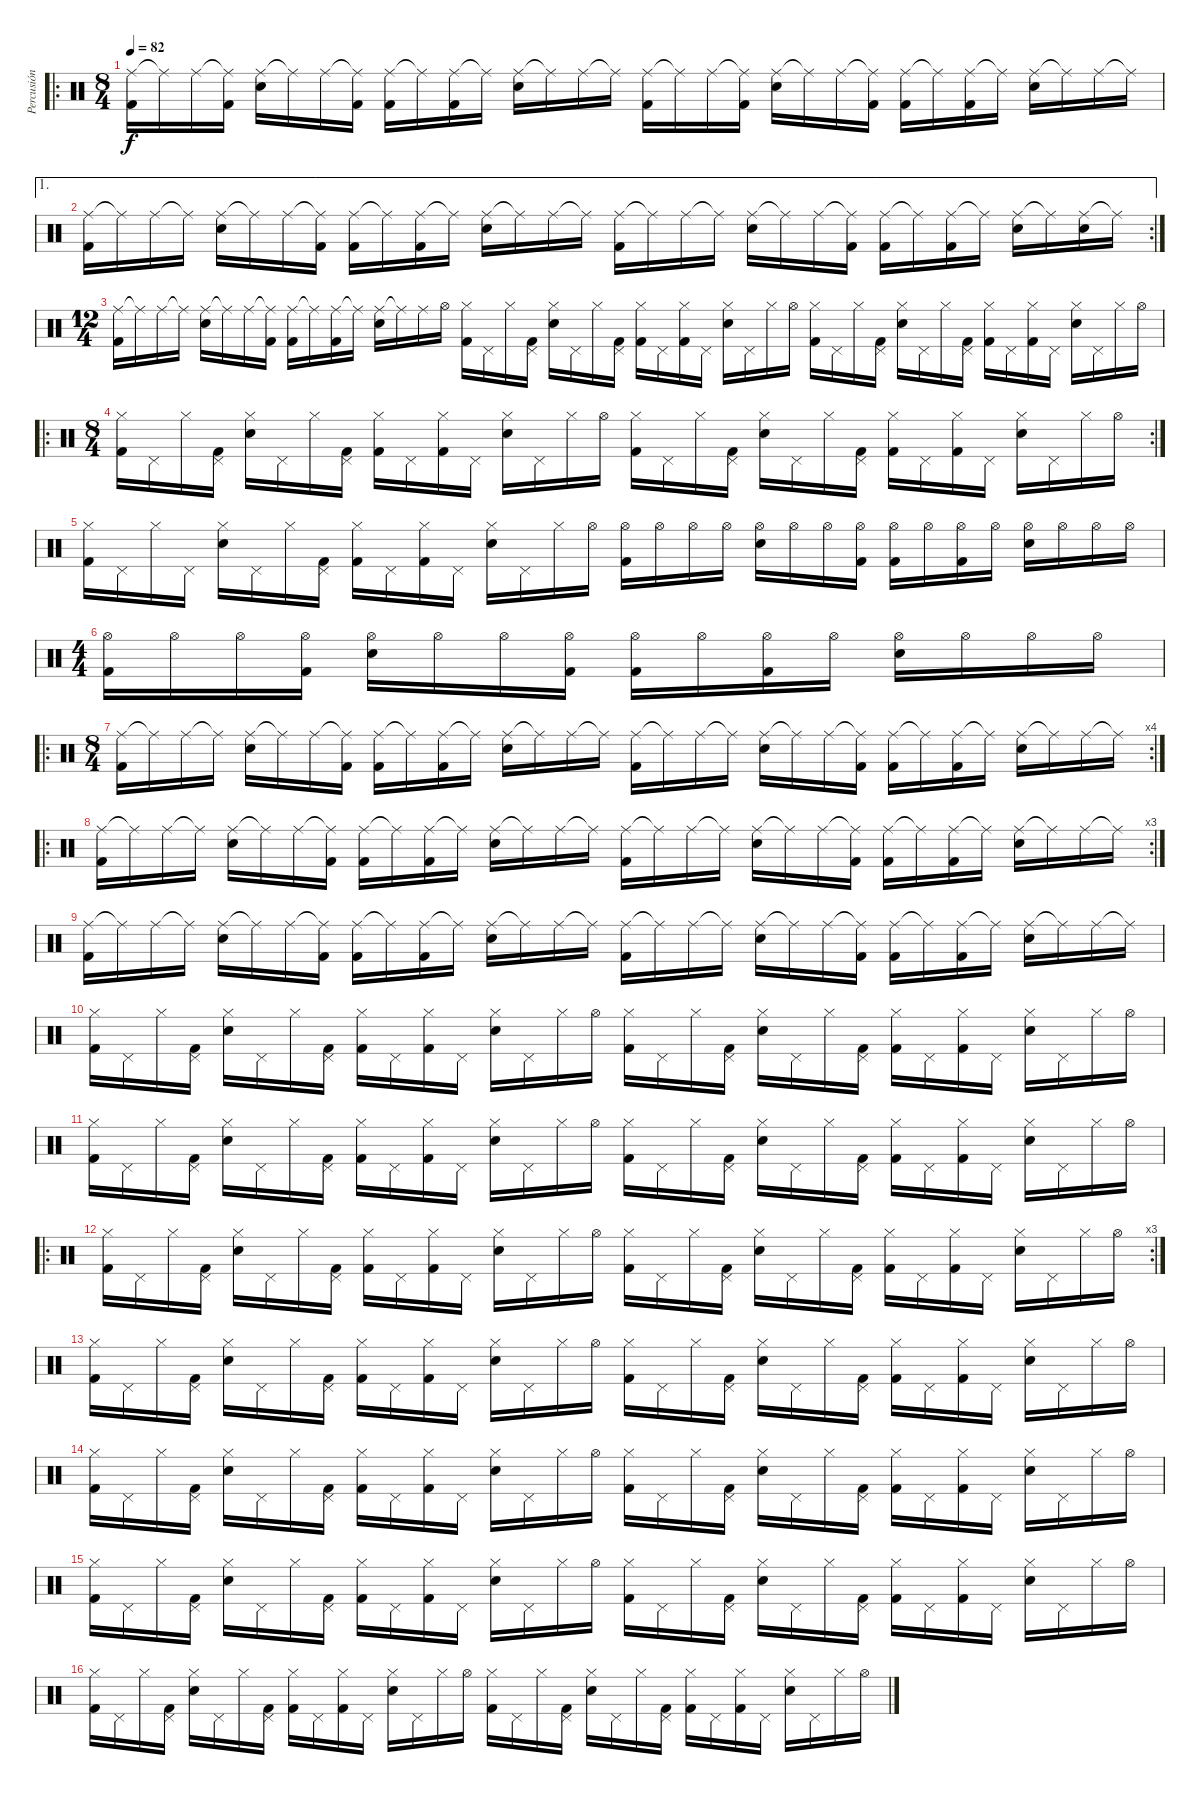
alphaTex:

\track ("Percusión" "Percusión") {instrument percussion}
\staff {score}
\articulation defaults
\ro
\ts (8 4)
\tempo 82
\clef neutral
\ks c
("Ride (middle)" "Kick (hit) 2").16{dy f volume 7} "Ride (middle)"{t}.16 "Ride (middle)".16 ("Ride (middle)"{t} "Kick (hit) 2").16 ("Ride (middle)" "Electric Snare (hit)").16 "Ride (middle)"{t}.16 "Ride (middle)".16 ("Ride (middle)"{t} "Kick (hit) 2").16 ("Ride (middle)" "Kick (hit) 2").16 "Ride (middle)"{t}.16 ("Ride (middle)" "Kick (hit) 2").16 "Ride (middle)"{t}.16 ("Ride (middle)" "Electric Snare (hit)").16 "Ride (middle)"{t}.16 "Ride (middle)".16 "Ride (middle)"{t}.16 ("Ride (middle)" "Kick (hit) 2").16 "Ride (middle)"{t}.16 "Ride (middle)".16 ("Ride (middle)"{t} "Kick (hit) 2").16 ("Ride (middle)" "Electric Snare (hit)").16 "Ride (middle)"{t}.16 "Ride (middle)".16 ("Ride (middle)"{t} "Kick (hit) 2").16 ("Ride (middle)" "Kick (hit) 2").16 "Ride (middle)"{t}.16 ("Ride (middle)" "Kick (hit) 2").16 "Ride (middle)"{t}.16 ("Ride (middle)" "Electric Snare (hit)").16 "Ride (middle)"{t}.16 "Ride (middle)".16 "Ride (middle)"{t}.16 |
\ae 1
\rc 2
("Ride (middle)" "Kick (hit) 2").16 "Ride (middle)"{t}.16 "Ride (middle)".16 "Ride (middle)"{t}.16 ("Ride (middle)" "Electric Snare (hit)").16 "Ride (middle)"{t}.16 "Ride (middle)".16 ("Ride (middle)"{t} "Kick (hit) 2").16 ("Ride (middle)" "Kick (hit) 2").16 "Ride (middle)"{t}.16 ("Ride (middle)" "Kick (hit) 2").16 "Ride (middle)"{t}.16 ("Ride (middle)" "Electric Snare (hit)").16 "Ride (middle)"{t}.16 "Ride (middle)".16 "Ride (middle)"{t}.16 ("Ride (middle)" "Kick (hit) 2").16 "Ride (middle)"{t}.16 "Ride (middle)".16 "Ride (middle)"{t}.16 ("Ride (middle)" "Electric Snare (hit)").16 "Ride (middle)"{t}.16 "Ride (middle)".16 ("Ride (middle)"{t} "Kick (hit) 2").16 ("Ride (middle)" "Kick (hit) 2").16 "Ride (middle)"{t}.16 ("Ride (middle)" "Kick (hit) 2").16 "Ride (middle)"{t}.16 ("Ride (middle)" "Electric Snare (hit)").16 "Ride (middle)"{t}.16 ("Ride (middle)" "Electric Snare (hit)").16 "Ride (middle)"{t}.16 |
\ts (12 4)
("Ride (middle)" "Kick (hit) 2").16 "Ride (middle)"{t}.16 "Ride (middle)".16 "Ride (middle)"{t}.16 ("Ride (middle)" "Electric Snare (hit)").16 "Ride (middle)"{t}.16 "Ride (middle)".16 ("Ride (middle)"{t} "Kick (hit) 2").16 ("Ride (middle)" "Kick (hit) 2").16 "Ride (middle)"{t}.16 ("Ride (middle)" "Kick (hit) 2").16 "Ride (middle)"{t}.16 ("Ride (middle)" "Electric Snare (hit)").16 "Ride (middle)"{t}.16 "Ride (middle)".16 "Hi-Hat (open)".16 ("Hi-Hat (closed)" "Kick (hit) 2").16 "Pedal Hi-Hat (hit)".16 "Hi-Hat (closed)".16 ("Pedal Hi-Hat (hit)" "Kick (hit) 2").16 ("Hi-Hat (closed)" "Electric Snare (hit)").16 "Pedal Hi-Hat (hit)".16 "Hi-Hat (closed)".16 ("Pedal Hi-Hat (hit)" "Kick (hit) 2").16 ("Hi-Hat (closed)" "Kick (hit) 2").16 "Pedal Hi-Hat (hit)".16 ("Hi-Hat (closed)" "Kick (hit) 2").16 "Pedal Hi-Hat (hit)".16 ("Hi-Hat (closed)" "Electric Snare (hit)").16 "Pedal Hi-Hat (hit)".16 "Hi-Hat (closed)".16 "Hi-Hat (open)".16 ("Hi-Hat (closed)" "Kick (hit) 2").16 "Pedal Hi-Hat (hit)".16 "Hi-Hat (closed)".16 ("Pedal Hi-Hat (hit)" "Kick (hit) 2").16 ("Hi-Hat (closed)" "Electric Snare (hit)").16 "Pedal Hi-Hat (hit)".16 "Hi-Hat (closed)".16 ("Pedal Hi-Hat (hit)" "Kick (hit) 2").16 ("Hi-Hat (closed)" "Kick (hit) 2").16 "Pedal Hi-Hat (hit)".16 ("Hi-Hat (closed)" "Kick (hit) 2").16 "Pedal Hi-Hat (hit)".16 ("Hi-Hat (closed)" "Electric Snare (hit)").16 "Pedal Hi-Hat (hit)".16 "Hi-Hat (closed)".16 "Hi-Hat (open)".16 |
\ro
\rc 2
\ts (8 4)
("Hi-Hat (closed)" "Kick (hit) 2").16 "Pedal Hi-Hat (hit)".16 "Hi-Hat (closed)".16 ("Pedal Hi-Hat (hit)" "Kick (hit) 2").16 ("Hi-Hat (closed)" "Electric Snare (hit)").16 "Pedal Hi-Hat (hit)".16 "Hi-Hat (closed)".16 ("Pedal Hi-Hat (hit)" "Kick (hit) 2").16 ("Hi-Hat (closed)" "Kick (hit) 2").16 "Pedal Hi-Hat (hit)".16 ("Hi-Hat (closed)" "Kick (hit) 2").16 "Pedal Hi-Hat (hit)".16 ("Hi-Hat (closed)" "Electric Snare (hit)").16 "Pedal Hi-Hat (hit)".16 "Hi-Hat (closed)".16 "Hi-Hat (open)".16 ("Hi-Hat (closed)" "Kick (hit) 2").16 "Pedal Hi-Hat (hit)".16 "Hi-Hat (closed)".16 ("Pedal Hi-Hat (hit)" "Kick (hit) 2").16 ("Hi-Hat (closed)" "Electric Snare (hit)").16 "Pedal Hi-Hat (hit)".16 "Hi-Hat (closed)".16 ("Pedal Hi-Hat (hit)" "Kick (hit) 2").16 ("Hi-Hat (closed)" "Kick (hit) 2").16 "Pedal Hi-Hat (hit)".16 ("Hi-Hat (closed)" "Kick (hit) 2").16 "Pedal Hi-Hat (hit)".16 ("Hi-Hat (closed)" "Electric Snare (hit)").16 "Pedal Hi-Hat (hit)".16 "Hi-Hat (closed)".16 "Hi-Hat (open)".16 |
("Hi-Hat (closed)" "Kick (hit) 2").16 "Pedal Hi-Hat (hit)".16 "Hi-Hat (closed)".16 "Pedal Hi-Hat (hit)".16 ("Hi-Hat (closed)" "Electric Snare (hit)").16 "Pedal Hi-Hat (hit)".16 "Hi-Hat (closed)".16 ("Pedal Hi-Hat (hit)" "Kick (hit) 2").16 ("Hi-Hat (closed)" "Kick (hit) 2").16 "Pedal Hi-Hat (hit)".16 ("Hi-Hat (closed)" "Kick (hit) 2").16 "Pedal Hi-Hat (hit)".16 ("Hi-Hat (closed)" "Electric Snare (hit)").16 "Pedal Hi-Hat (hit)".16 "Hi-Hat (closed)".16 "Hi-Hat (open)".16 ("Hi-Hat (open)" "Kick (hit) 2").16 "Hi-Hat (open)".16 "Hi-Hat (open)".16 "Hi-Hat (open)".16 ("Hi-Hat (open)" "Electric Snare (hit)").16 "Hi-Hat (open)".16 "Hi-Hat (open)".16 ("Hi-Hat (open)" "Kick (hit) 2").16 ("Hi-Hat (open)" "Kick (hit) 2").16 "Hi-Hat (open)".16 ("Hi-Hat (open)" "Kick (hit) 2").16 "Hi-Hat (open)".16 ("Hi-Hat (open)" "Electric Snare (hit)").16 "Hi-Hat (open)".16 "Hi-Hat (open)".16 "Hi-Hat (open)".16 |
\ts (4 4)
("Hi-Hat (open)" "Kick (hit) 2").16 "Hi-Hat (open)".16 "Hi-Hat (open)".16 ("Hi-Hat (open)" "Kick (hit) 2").16 ("Hi-Hat (open)" "Electric Snare (hit)").16 "Hi-Hat (open)".16 "Hi-Hat (open)".16 ("Hi-Hat (open)" "Kick (hit) 2").16 ("Hi-Hat (open)" "Kick (hit) 2").16 "Hi-Hat (open)".16 ("Hi-Hat (open)" "Kick (hit) 2").16 "Hi-Hat (open)".16 ("Hi-Hat (open)" "Electric Snare (hit)").16 "Hi-Hat (open)".16 "Hi-Hat (open)".16 "Hi-Hat (open)".16 |
\ro
\rc 4
\ts (8 4)
("Ride (middle)" "Kick (hit) 2").16 "Ride (middle)"{t}.16 "Ride (middle)".16 "Ride (middle)"{t}.16 ("Ride (middle)" "Electric Snare (hit)").16 "Ride (middle)"{t}.16 "Ride (middle)".16 ("Ride (middle)"{t} "Kick (hit) 2").16 ("Ride (middle)" "Kick (hit) 2").16 "Ride (middle)"{t}.16 ("Ride (middle)" "Kick (hit) 2").16 "Ride (middle)"{t}.16 ("Ride (middle)" "Electric Snare (hit)").16 "Ride (middle)"{t}.16 "Ride (middle)".16 "Ride (middle)"{t}.16 ("Ride (middle)" "Kick (hit) 2").16 "Ride (middle)"{t}.16 "Ride (middle)".16 "Ride (middle)"{t}.16 ("Ride (middle)" "Electric Snare (hit)").16 "Ride (middle)"{t}.16 "Ride (middle)".16 ("Ride (middle)"{t} "Kick (hit) 2").16 ("Ride (middle)" "Kick (hit) 2").16 "Ride (middle)"{t}.16 ("Ride (middle)" "Kick (hit) 2").16 "Ride (middle)"{t}.16 ("Ride (middle)" "Electric Snare (hit)").16 "Ride (middle)"{t}.16 "Ride (middle)".16 "Ride (middle)"{t}.16 |
\ro
\rc 3
("Ride (middle)" "Kick (hit) 2").16 "Ride (middle)"{t}.16 "Ride (middle)".16 "Ride (middle)"{t}.16 ("Ride (middle)" "Electric Snare (hit)").16 "Ride (middle)"{t}.16 "Ride (middle)".16 ("Ride (middle)"{t} "Kick (hit) 2").16 ("Ride (middle)" "Kick (hit) 2").16 "Ride (middle)"{t}.16 ("Ride (middle)" "Kick (hit) 2").16 "Ride (middle)"{t}.16 ("Ride (middle)" "Electric Snare (hit)").16 "Ride (middle)"{t}.16 "Ride (middle)".16 "Ride (middle)"{t}.16 ("Ride (middle)" "Kick (hit) 2").16 "Ride (middle)"{t}.16 "Ride (middle)".16 "Ride (middle)"{t}.16 ("Ride (middle)" "Electric Snare (hit)").16 "Ride (middle)"{t}.16 "Ride (middle)".16 ("Ride (middle)"{t} "Kick (hit) 2").16 ("Ride (middle)" "Kick (hit) 2").16 "Ride (middle)"{t}.16 ("Ride (middle)" "Kick (hit) 2").16 "Ride (middle)"{t}.16 ("Ride (middle)" "Electric Snare (hit)").16 "Ride (middle)"{t}.16 "Ride (middle)".16 "Ride (middle)"{t}.16 |
("Ride (middle)" "Kick (hit) 2").16 "Ride (middle)"{t}.16 "Ride (middle)".16 "Ride (middle)"{t}.16 ("Ride (middle)" "Electric Snare (hit)").16 "Ride (middle)"{t}.16 "Ride (middle)".16 ("Ride (middle)"{t} "Kick (hit) 2").16 ("Ride (middle)" "Kick (hit) 2").16 "Ride (middle)"{t}.16 ("Ride (middle)" "Kick (hit) 2").16 "Ride (middle)"{t}.16 ("Ride (middle)" "Electric Snare (hit)").16 "Ride (middle)"{t}.16 "Ride (middle)".16 "Ride (middle)"{t}.16 ("Ride (middle)" "Kick (hit) 2").16 "Ride (middle)"{t}.16 "Ride (middle)".16 "Ride (middle)"{t}.16 ("Ride (middle)" "Electric Snare (hit)").16 "Ride (middle)"{t}.16 "Ride (middle)".16 ("Ride (middle)"{t} "Kick (hit) 2").16 ("Ride (middle)" "Kick (hit) 2").16 "Ride (middle)"{t}.16 ("Ride (middle)" "Kick (hit) 2").16 "Ride (middle)"{t}.16 ("Ride (middle)" "Electric Snare (hit)").16 "Ride (middle)"{t}.16 "Ride (middle)".16 "Ride (middle)"{t}.16 |
("Hi-Hat (closed)" "Kick (hit) 2").16 "Pedal Hi-Hat (hit)".16 "Hi-Hat (closed)".16 ("Pedal Hi-Hat (hit)" "Kick (hit) 2").16 ("Hi-Hat (closed)" "Electric Snare (hit)").16 "Pedal Hi-Hat (hit)".16 "Hi-Hat (closed)".16 ("Pedal Hi-Hat (hit)" "Kick (hit) 2").16 ("Hi-Hat (closed)" "Kick (hit) 2").16 "Pedal Hi-Hat (hit)".16 ("Hi-Hat (closed)" "Kick (hit) 2").16 "Pedal Hi-Hat (hit)".16 ("Hi-Hat (closed)" "Electric Snare (hit)").16 "Pedal Hi-Hat (hit)".16 "Hi-Hat (closed)".16 "Hi-Hat (open)".16 ("Hi-Hat (closed)" "Kick (hit) 2").16 "Pedal Hi-Hat (hit)".16 "Hi-Hat (closed)".16 ("Pedal Hi-Hat (hit)" "Kick (hit) 2").16 ("Hi-Hat (closed)" "Electric Snare (hit)").16 "Pedal Hi-Hat (hit)".16 "Hi-Hat (closed)".16 ("Pedal Hi-Hat (hit)" "Kick (hit) 2").16 ("Hi-Hat (closed)" "Kick (hit) 2").16 "Pedal Hi-Hat (hit)".16 ("Hi-Hat (closed)" "Kick (hit) 2").16 "Pedal Hi-Hat (hit)".16 ("Hi-Hat (closed)" "Electric Snare (hit)").16 "Pedal Hi-Hat (hit)".16 "Hi-Hat (closed)".16 "Hi-Hat (open)".16 |
("Hi-Hat (closed)" "Kick (hit) 2").16 "Pedal Hi-Hat (hit)".16 "Hi-Hat (closed)".16 ("Pedal Hi-Hat (hit)" "Kick (hit) 2").16 ("Hi-Hat (closed)" "Electric Snare (hit)").16 "Pedal Hi-Hat (hit)".16 "Hi-Hat (closed)".16 ("Pedal Hi-Hat (hit)" "Kick (hit) 2").16 ("Hi-Hat (closed)" "Kick (hit) 2").16 "Pedal Hi-Hat (hit)".16 ("Hi-Hat (closed)" "Kick (hit) 2").16 "Pedal Hi-Hat (hit)".16 ("Hi-Hat (closed)" "Electric Snare (hit)").16 "Pedal Hi-Hat (hit)".16 "Hi-Hat (closed)".16 "Hi-Hat (open)".16 ("Hi-Hat (closed)" "Kick (hit) 2").16 "Pedal Hi-Hat (hit)".16 "Hi-Hat (closed)".16 ("Pedal Hi-Hat (hit)" "Kick (hit) 2").16 ("Hi-Hat (closed)" "Electric Snare (hit)").16 "Pedal Hi-Hat (hit)".16 "Hi-Hat (closed)".16 ("Pedal Hi-Hat (hit)" "Kick (hit) 2").16 ("Hi-Hat (closed)" "Kick (hit) 2").16 "Pedal Hi-Hat (hit)".16 ("Hi-Hat (closed)" "Kick (hit) 2").16 "Pedal Hi-Hat (hit)".16 ("Hi-Hat (closed)" "Electric Snare (hit)").16 "Pedal Hi-Hat (hit)".16 "Hi-Hat (closed)".16 "Hi-Hat (open)".16 |
\ro
\rc 3
("Hi-Hat (closed)" "Kick (hit) 2").16 "Pedal Hi-Hat (hit)".16 "Hi-Hat (closed)".16 ("Pedal Hi-Hat (hit)" "Kick (hit) 2").16 ("Hi-Hat (closed)" "Electric Snare (hit)").16 "Pedal Hi-Hat (hit)".16 "Hi-Hat (closed)".16 ("Pedal Hi-Hat (hit)" "Kick (hit) 2").16 ("Hi-Hat (closed)" "Kick (hit) 2").16 "Pedal Hi-Hat (hit)".16 ("Hi-Hat (closed)" "Kick (hit) 2").16 "Pedal Hi-Hat (hit)".16 ("Hi-Hat (closed)" "Electric Snare (hit)").16 "Pedal Hi-Hat (hit)".16 "Hi-Hat (closed)".16 "Hi-Hat (open)".16 ("Hi-Hat (closed)" "Kick (hit) 2").16 "Pedal Hi-Hat (hit)".16 "Hi-Hat (closed)".16 ("Pedal Hi-Hat (hit)" "Kick (hit) 2").16 ("Hi-Hat (closed)" "Electric Snare (hit)").16 "Pedal Hi-Hat (hit)".16 "Hi-Hat (closed)".16 ("Pedal Hi-Hat (hit)" "Kick (hit) 2").16 ("Hi-Hat (closed)" "Kick (hit) 2").16 "Pedal Hi-Hat (hit)".16 ("Hi-Hat (closed)" "Kick (hit) 2").16 "Pedal Hi-Hat (hit)".16 ("Hi-Hat (closed)" "Electric Snare (hit)").16 "Pedal Hi-Hat (hit)".16 "Hi-Hat (closed)".16 "Hi-Hat (open)".16 |
("Hi-Hat (closed)" "Kick (hit) 2").16 "Pedal Hi-Hat (hit)".16 "Hi-Hat (closed)".16 ("Pedal Hi-Hat (hit)" "Kick (hit) 2").16 ("Hi-Hat (closed)" "Electric Snare (hit)").16 "Pedal Hi-Hat (hit)".16 "Hi-Hat (closed)".16 ("Pedal Hi-Hat (hit)" "Kick (hit) 2").16 ("Hi-Hat (closed)" "Kick (hit) 2").16 "Pedal Hi-Hat (hit)".16 ("Hi-Hat (closed)" "Kick (hit) 2").16 "Pedal Hi-Hat (hit)".16 ("Hi-Hat (closed)" "Electric Snare (hit)").16 "Pedal Hi-Hat (hit)".16 "Hi-Hat (closed)".16 "Hi-Hat (open)".16 ("Hi-Hat (closed)" "Kick (hit) 2").16 "Pedal Hi-Hat (hit)".16 "Hi-Hat (closed)".16 ("Pedal Hi-Hat (hit)" "Kick (hit) 2").16 ("Hi-Hat (closed)" "Electric Snare (hit)").16 "Pedal Hi-Hat (hit)".16 "Hi-Hat (closed)".16 ("Pedal Hi-Hat (hit)" "Kick (hit) 2").16 ("Hi-Hat (closed)" "Kick (hit) 2").16 "Pedal Hi-Hat (hit)".16 ("Hi-Hat (closed)" "Kick (hit) 2").16 "Pedal Hi-Hat (hit)".16 ("Hi-Hat (closed)" "Electric Snare (hit)").16 "Pedal Hi-Hat (hit)".16 "Hi-Hat (closed)".16 "Hi-Hat (open)".16 |
("Hi-Hat (closed)" "Kick (hit) 2").16 "Pedal Hi-Hat (hit)".16 "Hi-Hat (closed)".16 ("Pedal Hi-Hat (hit)" "Kick (hit) 2").16 ("Hi-Hat (closed)" "Electric Snare (hit)").16 "Pedal Hi-Hat (hit)".16 "Hi-Hat (closed)".16 ("Pedal Hi-Hat (hit)" "Kick (hit) 2").16 ("Hi-Hat (closed)" "Kick (hit) 2").16 "Pedal Hi-Hat (hit)".16 ("Hi-Hat (closed)" "Kick (hit) 2").16 "Pedal Hi-Hat (hit)".16 ("Hi-Hat (closed)" "Electric Snare (hit)").16 "Pedal Hi-Hat (hit)".16 "Hi-Hat (closed)".16 "Hi-Hat (open)".16 ("Hi-Hat (closed)" "Kick (hit) 2").16 "Pedal Hi-Hat (hit)".16 "Hi-Hat (closed)".16 ("Pedal Hi-Hat (hit)" "Kick (hit) 2").16 ("Hi-Hat (closed)" "Electric Snare (hit)").16 "Pedal Hi-Hat (hit)".16 "Hi-Hat (closed)".16 ("Pedal Hi-Hat (hit)" "Kick (hit) 2").16 ("Hi-Hat (closed)" "Kick (hit) 2").16 "Pedal Hi-Hat (hit)".16 ("Hi-Hat (closed)" "Kick (hit) 2").16 "Pedal Hi-Hat (hit)".16 ("Hi-Hat (closed)" "Electric Snare (hit)").16 "Pedal Hi-Hat (hit)".16 "Hi-Hat (closed)".16 "Hi-Hat (open)".16 |
("Hi-Hat (closed)" "Kick (hit) 2").16 "Pedal Hi-Hat (hit)".16 "Hi-Hat (closed)".16 ("Pedal Hi-Hat (hit)" "Kick (hit) 2").16 ("Hi-Hat (closed)" "Electric Snare (hit)").16 "Pedal Hi-Hat (hit)".16 "Hi-Hat (closed)".16 ("Pedal Hi-Hat (hit)" "Kick (hit) 2").16 ("Hi-Hat (closed)" "Kick (hit) 2").16 "Pedal Hi-Hat (hit)".16 ("Hi-Hat (closed)" "Kick (hit) 2").16 "Pedal Hi-Hat (hit)".16 ("Hi-Hat (closed)" "Electric Snare (hit)").16 "Pedal Hi-Hat (hit)".16 "Hi-Hat (closed)".16 "Hi-Hat (open)".16 ("Hi-Hat (closed)" "Kick (hit) 2").16 "Pedal Hi-Hat (hit)".16 "Hi-Hat (closed)".16 ("Pedal Hi-Hat (hit)" "Kick (hit) 2").16 ("Hi-Hat (closed)" "Electric Snare (hit)").16 "Pedal Hi-Hat (hit)".16 "Hi-Hat (closed)".16 ("Pedal Hi-Hat (hit)" "Kick (hit) 2").16 ("Hi-Hat (closed)" "Kick (hit) 2").16 "Pedal Hi-Hat (hit)".16 ("Hi-Hat (closed)" "Kick (hit) 2").16 "Pedal Hi-Hat (hit)".16 ("Hi-Hat (closed)" "Electric Snare (hit)").16 "Pedal Hi-Hat (hit)".16 "Hi-Hat (closed)".16 "Hi-Hat (open)".16 |
("Hi-Hat (closed)" "Kick (hit) 2").16 "Pedal Hi-Hat (hit)".16 "Hi-Hat (closed)".16 ("Pedal Hi-Hat (hit)" "Kick (hit) 2").16 ("Hi-Hat (closed)" "Electric Snare (hit)").16 "Pedal Hi-Hat (hit)".16 "Hi-Hat (closed)".16 ("Pedal Hi-Hat (hit)" "Kick (hit) 2").16 ("Hi-Hat (closed)" "Kick (hit) 2").16 "Pedal Hi-Hat (hit)".16 ("Hi-Hat (closed)" "Kick (hit) 2").16 "Pedal Hi-Hat (hit)".16 ("Hi-Hat (closed)" "Electric Snare (hit)").16 "Pedal Hi-Hat (hit)".16 "Hi-Hat (closed)".16 "Hi-Hat (open)".16 ("Hi-Hat (closed)" "Kick (hit) 2").16 "Pedal Hi-Hat (hit)".16 "Hi-Hat (closed)".16 ("Pedal Hi-Hat (hit)" "Kick (hit) 2").16 ("Hi-Hat (closed)" "Electric Snare (hit)").16 "Pedal Hi-Hat (hit)".16 "Hi-Hat (closed)".16 ("Pedal Hi-Hat (hit)" "Kick (hit) 2").16 ("Hi-Hat (closed)" "Kick (hit) 2").16 "Pedal Hi-Hat (hit)".16 ("Hi-Hat (closed)" "Kick (hit) 2").16 "Pedal Hi-Hat (hit)".16 ("Hi-Hat (closed)" "Electric Snare (hit)").16 "Pedal Hi-Hat (hit)".16 "Hi-Hat (closed)".16 "Hi-Hat (open)".16
